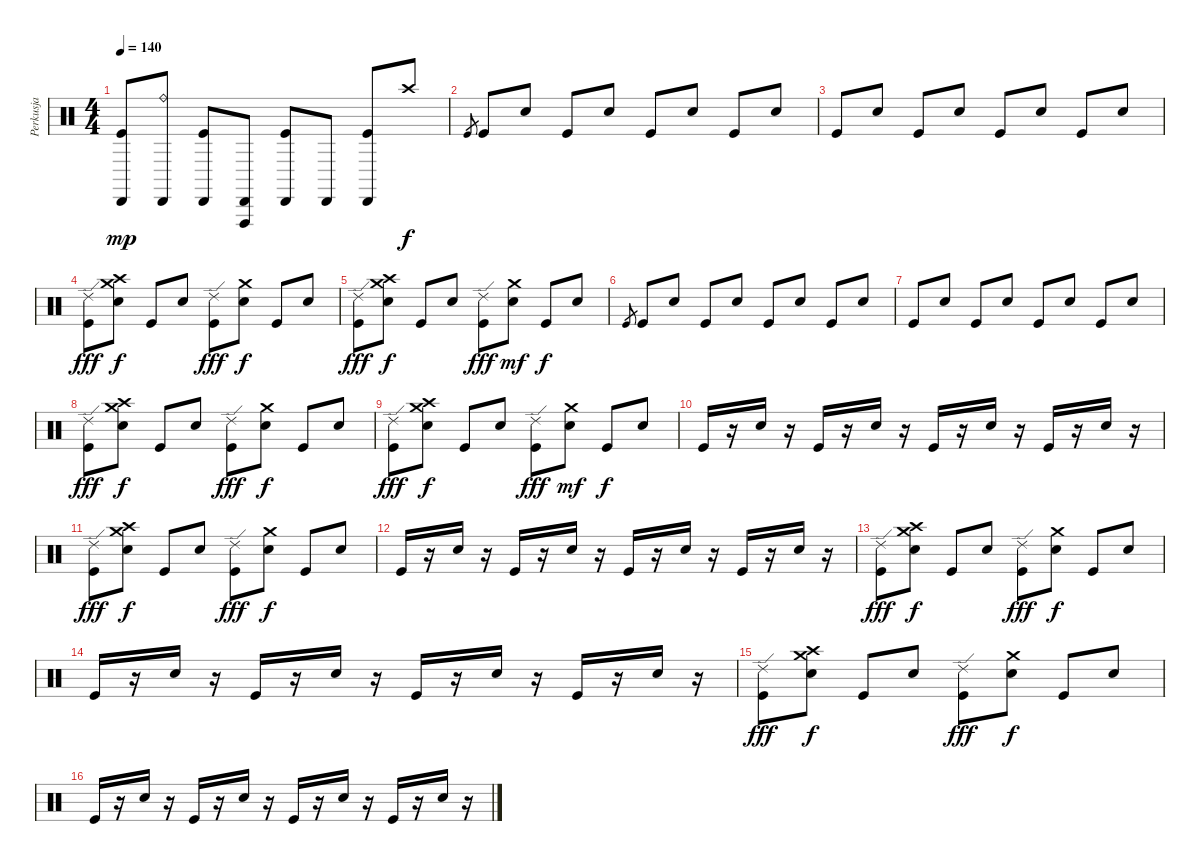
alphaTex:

\track ("Perkusja" "Perkusja") {instrument percussion}
\staff {score}
\articulation defaults
\ts (4 4)
\tempo 140
\clef neutral
\ks c
("Kick (hit)" "Cabasa (hit)").8{dy mp} ("Ride (bell)" "Cabasa (hit)").8 ("Kick (hit)" "Cabasa (hit)").8 ("Vibraslap (hit)" "Cabasa (hit)").8 ("Kick (hit)" "Cabasa (hit)").8 "Cabasa (hit)".8 ("Kick (hit)" "Cabasa (hit)").8 "Crash high (hit)".8{dy f} |
"Kick (hit)".8{gr} "Kick (hit)".8 "Snare (hit) 2".8 "Kick (hit)".8 "Snare (hit) 2".8 "Kick (hit)".8 "Snare (hit) 2".8 "Kick (hit)".8 "Snare (hit) 2".8 |
"Kick (hit)".8 "Snare (hit) 2".8 "Kick (hit)".8 "Snare (hit) 2".8 "Kick (hit)".8 "Snare (hit) 2".8 "Kick (hit)".8 "Snare (hit) 2".8 |
("Kick (hit)" "Ride (edge) 2").8{dy fff} ("Snare (hit) 2" "Crash medium (hit)" "Crash high (hit)").8{dy f} "Kick (hit)".8 "Snare (hit) 2".8 ("Kick (hit)" "Ride (edge) 2").8{dy fff} ("Snare (hit) 2" "Crash medium (hit)").8{dy f} "Kick (hit)".8 "Snare (hit) 2".8 |
("Kick (hit)" "Ride (edge) 2").8{dy fff} ("Snare (hit) 2" "Crash medium (hit)" "Crash high (hit)").8{dy f} "Kick (hit)".8 "Snare (hit) 2".8 ("Kick (hit)" "Ride (edge) 2").8{dy fff} ("Snare (hit) 2" "Crash medium (hit)").8{dy mf} "Kick (hit)".8{dy f} "Snare (hit) 2".8 |
"Kick (hit)".8{gr} "Kick (hit)".8 "Snare (hit) 2".8 "Kick (hit)".8 "Snare (hit) 2".8 "Kick (hit)".8 "Snare (hit) 2".8 "Kick (hit)".8 "Snare (hit) 2".8 |
"Kick (hit)".8 "Snare (hit) 2".8 "Kick (hit)".8 "Snare (hit) 2".8 "Kick (hit)".8 "Snare (hit) 2".8 "Kick (hit)".8 "Snare (hit) 2".8 |
("Kick (hit)" "Ride (edge) 2").8{dy fff} ("Snare (hit) 2" "Crash medium (hit)" "Crash high (hit)").8{dy f} "Kick (hit)".8 "Snare (hit) 2".8 ("Kick (hit)" "Ride (edge) 2").8{dy fff} ("Snare (hit) 2" "Crash medium (hit)").8{dy f} "Kick (hit)".8 "Snare (hit) 2".8 |
("Kick (hit)" "Ride (edge) 2").8{dy fff} ("Snare (hit) 2" "Crash medium (hit)" "Crash high (hit)").8{dy f} "Kick (hit)".8 "Snare (hit) 2".8 ("Kick (hit)" "Ride (edge) 2").8{dy fff} ("Snare (hit) 2" "Crash medium (hit)").8{dy mf} "Kick (hit)".8{dy f} "Snare (hit) 2".8 |
"Kick (hit)".16 r.16 "Snare (hit) 2".16 r.16 "Kick (hit)".16 r.16 "Snare (hit) 2".16 r.16 "Kick (hit)".16 r.16 "Snare (hit) 2".16 r.16 "Kick (hit)".16 r.16 "Snare (hit) 2".16 r.16 |
("Kick (hit)" "Ride (edge) 2").8{dy fff} ("Snare (hit) 2" "Crash medium (hit)" "Crash high (hit)").8{dy f} "Kick (hit)".8 "Snare (hit) 2".8 ("Kick (hit)" "Ride (edge) 2").8{dy fff} ("Snare (hit) 2" "Crash medium (hit)").8{dy f} "Kick (hit)".8 "Snare (hit) 2".8 |
"Kick (hit)".16 r.16 "Snare (hit) 2".16 r.16 "Kick (hit)".16 r.16 "Snare (hit) 2".16 r.16 "Kick (hit)".16 r.16 "Snare (hit) 2".16 r.16 "Kick (hit)".16 r.16 "Snare (hit) 2".16 r.16 |
("Kick (hit)" "Ride (edge) 2").8{dy fff} ("Snare (hit) 2" "Crash medium (hit)" "Crash high (hit)").8{dy f} "Kick (hit)".8 "Snare (hit) 2".8 ("Kick (hit)" "Ride (edge) 2").8{dy fff} ("Snare (hit) 2" "Crash medium (hit)").8{dy f} "Kick (hit)".8 "Snare (hit) 2".8 |
"Kick (hit)".16 r.16 "Snare (hit) 2".16 r.16 "Kick (hit)".16 r.16 "Snare (hit) 2".16 r.16 "Kick (hit)".16 r.16 "Snare (hit) 2".16 r.16 "Kick (hit)".16 r.16 "Snare (hit) 2".16 r.16 |
("Kick (hit)" "Ride (edge) 2").8{dy fff} ("Snare (hit) 2" "Crash medium (hit)" "Crash high (hit)").8{dy f} "Kick (hit)".8 "Snare (hit) 2".8 ("Kick (hit)" "Ride (edge) 2").8{dy fff} ("Snare (hit) 2" "Crash medium (hit)").8{dy f} "Kick (hit)".8 "Snare (hit) 2".8 |
"Kick (hit)".16 r.16 "Snare (hit) 2".16 r.16 "Kick (hit)".16 r.16 "Snare (hit) 2".16 r.16 "Kick (hit)".16 r.16 "Snare (hit) 2".16 r.16 "Kick (hit)".16 r.16 "Snare (hit) 2".16 r.16
